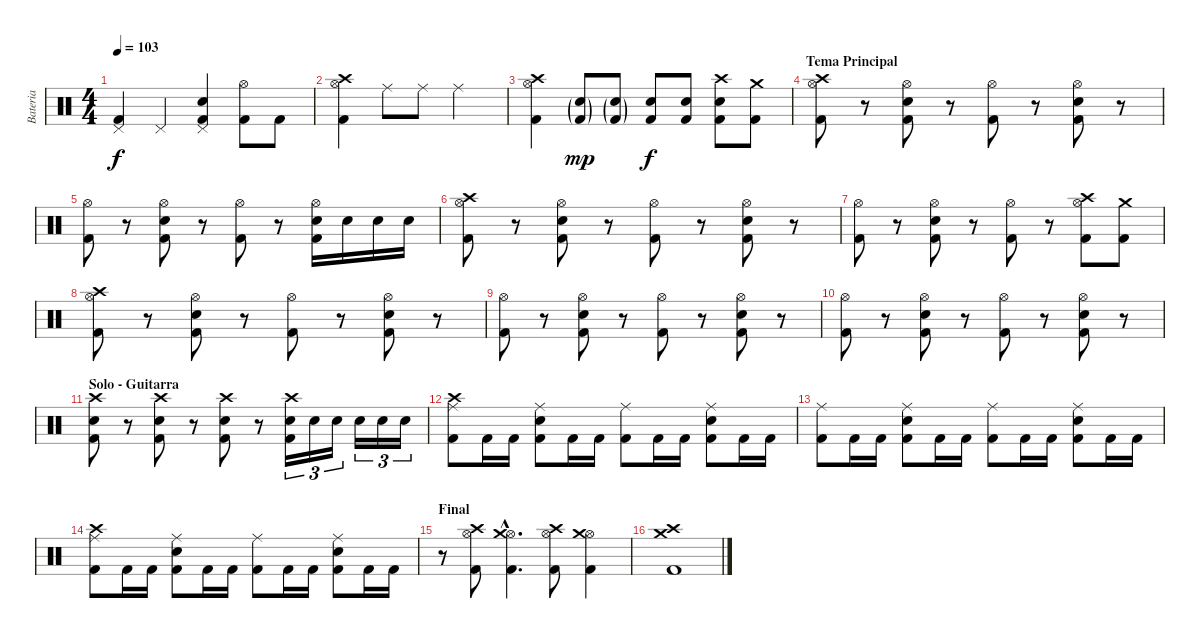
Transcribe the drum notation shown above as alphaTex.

\track ("Bateria" "Bateria") {instrument percussion}
\staff {score}
\articulation defaults
\ts (4 4)
\tempo 103
\clef neutral
\ks c
("Pedal Hi-Hat (hit)" "Kick (hit) 2").4{dy f} "Pedal Hi-Hat (hit)".4 ("Pedal Hi-Hat (hit)" "Snare (hit) 2" "Kick (hit) 2").4 ("Hi-Hat (open)" "Kick (hit) 2").8 "Kick (hit) 2".8 |
("Hi-Hat (open)" "Kick (hit) 2" "Crash high (hit)").4 "Ride (middle)".8 "Ride (middle)".8 "Ride (middle)".2 |
("Hi-Hat (open)" "Kick (hit) 2" "Crash high (hit)").4 ("Snare (hit) 2"{g} "Kick (hit) 2"{g}).8{dy mp} ("Snare (hit) 2"{g} "Kick (hit) 2"{g}).8 ("Snare (hit) 2" "Kick (hit) 2").8{dy f} ("Snare (hit) 2" "Kick (hit) 2").8 ("Snare (hit) 2" "Kick (hit) 2" "Crash high (hit)").8 ("Kick (hit) 2" "Crash medium (hit)").8 |
\section ("" "Tema Principal")
("Hi-Hat (open)" "Kick (hit) 2" "Crash high (hit)").8 r.8 ("Hi-Hat (open)" "Snare (hit) 2" "Kick (hit) 2").8 r.8 ("Hi-Hat (open)" "Kick (hit) 2").8 r.8 ("Hi-Hat (open)" "Snare (hit) 2" "Kick (hit) 2").8 r.8 |
("Hi-Hat (open)" "Kick (hit) 2").8 r.8 ("Hi-Hat (open)" "Snare (hit) 2" "Kick (hit) 2").8 r.8 ("Hi-Hat (open)" "Kick (hit) 2").8 r.8 ("Hi-Hat (open)" "Snare (hit) 2" "Kick (hit) 2").16 "Snare (hit) 2".16 "Snare (hit) 2".16 "Snare (hit) 2".16 |
("Hi-Hat (open)" "Kick (hit) 2" "Crash high (hit)").8 r.8 ("Hi-Hat (open)" "Snare (hit) 2" "Kick (hit) 2").8 r.8 ("Hi-Hat (open)" "Kick (hit) 2").8 r.8 ("Hi-Hat (open)" "Snare (hit) 2" "Kick (hit) 2").8 r.8 |
("Hi-Hat (open)" "Kick (hit) 2").8 r.8 ("Hi-Hat (open)" "Snare (hit) 2" "Kick (hit) 2").8 r.8 ("Hi-Hat (open)" "Kick (hit) 2").8 r.8 ("Hi-Hat (open)" "Kick (hit) 2" "Crash high (hit)").8 ("Kick (hit) 2" "Crash medium (hit)").8 |
("Hi-Hat (open)" "Kick (hit) 2" "Crash high (hit)").8 r.8 ("Hi-Hat (open)" "Snare (hit) 2" "Kick (hit) 2").8 r.8 ("Hi-Hat (open)" "Kick (hit) 2").8 r.8 ("Hi-Hat (open)" "Snare (hit) 2" "Kick (hit) 2").8 r.8 |
("Hi-Hat (open)" "Kick (hit) 2").8 r.8 ("Hi-Hat (open)" "Snare (hit) 2" "Kick (hit) 2").8 r.8 ("Hi-Hat (open)" "Kick (hit) 2").8 r.8 ("Hi-Hat (open)" "Snare (hit) 2" "Kick (hit) 2").8 r.8 |
("Hi-Hat (open)" "Kick (hit) 2").8 r.8 ("Hi-Hat (open)" "Snare (hit) 2" "Kick (hit) 2").8 r.8 ("Hi-Hat (open)" "Kick (hit) 2").8 r.8 ("Hi-Hat (open)" "Snare (hit) 2" "Kick (hit) 2").8 r.8 |
\section ("" "Solo - Guitarra")
("Snare (hit) 2" "Kick (hit) 2" "Crash high (hit)").8 r.8 ("Snare (hit) 2" "Kick (hit) 2" "Crash high (hit)").8 r.8 ("Snare (hit) 2" "Kick (hit) 2" "Crash high (hit)").8 r.8 ("Snare (hit) 2" "Kick (hit) 2" "Crash high (hit)").16{tu (3 2)} "Snare (hit) 2".16{tu (3 2)} "Snare (hit) 2".16{tu (3 2)} "Snare (hit) 2".16{tu (3 2)} "Snare (hit) 2".16{tu (3 2)} "Snare (hit) 2".16{tu (3 2)} |
("Ride (middle)" "Kick (hit) 2" "Crash high (hit)").8 "Kick (hit) 2".16 "Kick (hit) 2".16 ("Ride (middle)" "Snare (hit) 2" "Kick (hit) 2").8 "Kick (hit) 2".16 "Kick (hit) 2".16 ("Ride (middle)" "Kick (hit) 2").8 "Kick (hit) 2".16 "Kick (hit) 2".16 ("Ride (middle)" "Snare (hit) 2" "Kick (hit) 2").8 "Kick (hit) 2".16 "Kick (hit) 2".16 |
("Ride (middle)" "Kick (hit) 2").8 "Kick (hit) 2".16 "Kick (hit) 2".16 ("Ride (middle)" "Snare (hit) 2" "Kick (hit) 2").8 "Kick (hit) 2".16 "Kick (hit) 2".16 ("Ride (middle)" "Kick (hit) 2").8 "Kick (hit) 2".16 "Kick (hit) 2".16 ("Ride (middle)" "Snare (hit) 2" "Kick (hit) 2").8 "Kick (hit) 2".16 "Kick (hit) 2".16 |
("Ride (middle)" "Kick (hit) 2" "Crash high (hit)").8 "Kick (hit) 2".16 "Kick (hit) 2".16 ("Ride (middle)" "Snare (hit) 2" "Kick (hit) 2").8 "Kick (hit) 2".16 "Kick (hit) 2".16 ("Ride (middle)" "Kick (hit) 2").8 "Kick (hit) 2".16 "Kick (hit) 2".16 ("Ride (middle)" "Snare (hit) 2" "Kick (hit) 2").8 "Kick (hit) 2".16 "Kick (hit) 2".16 |
\section ("" "Final")
r.8 ("Hi-Hat (open)" "Kick (hit) 2" "Crash high (hit)").8 ("Hi-Hat (open)"{hac} "Kick (hit) 2"{hac} "Crash medium (hit)"{hac}).4{d} ("Hi-Hat (open)" "Kick (hit) 2" "Crash high (hit)").8 ("Hi-Hat (open)" "Kick (hit) 2" "Crash medium (hit)").4 |
("Kick (hit) 2" "Crash medium (hit)" "Crash high (hit)").1
